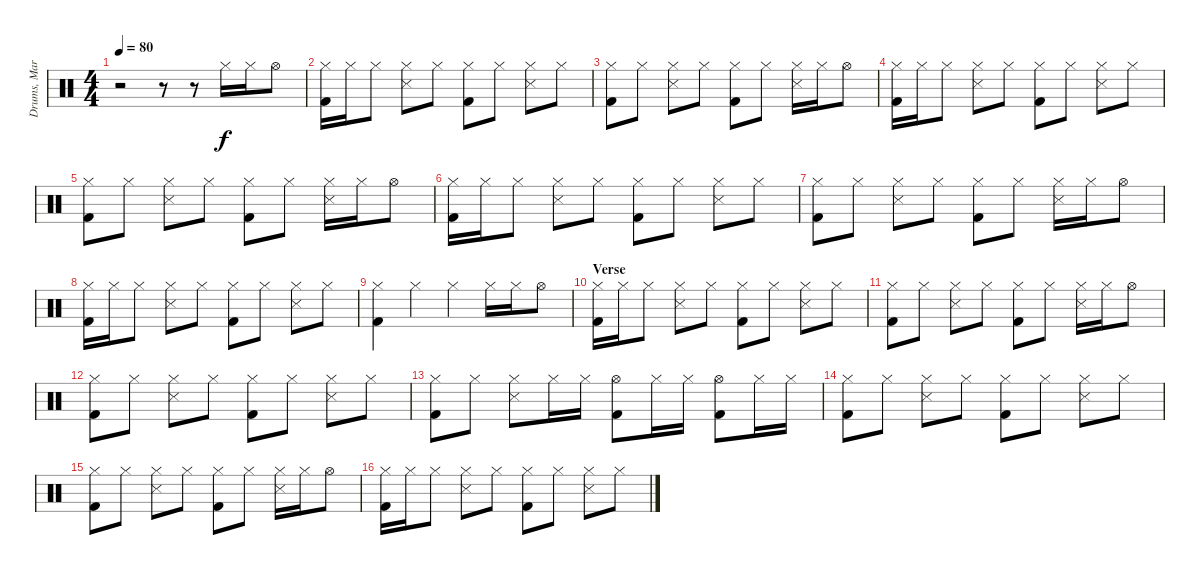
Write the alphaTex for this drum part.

\track ("Drums, Martina" "Drums, Mar") {instrument percussion}
\staff {score}
\articulation defaults
\ts (4 4)
\tempo 80
\clef neutral
\ks c
r.2{dy f} r.8 r.8 "Hi-Hat (closed)".16 "Hi-Hat (closed)".16 "Hi-Hat (open)".8 |
("Hi-Hat (closed)" "Kick (hit) 2").16 "Hi-Hat (closed)".16 "Hi-Hat (closed)".8 ("Hi-Hat (closed)" "Snare (side stick) 3").8 "Hi-Hat (closed)".8 ("Hi-Hat (closed)" "Kick (hit) 2").8 "Hi-Hat (closed)".8 ("Hi-Hat (closed)" "Snare (side stick) 3").8 "Hi-Hat (closed)".8 |
("Hi-Hat (closed)" "Kick (hit) 2").8 "Hi-Hat (closed)".8 ("Hi-Hat (closed)" "Snare (side stick) 3").8 "Hi-Hat (closed)".8 ("Hi-Hat (closed)" "Kick (hit) 2").8 "Hi-Hat (closed)".8 ("Hi-Hat (closed)" "Snare (side stick) 3").16 "Hi-Hat (closed)".16 "Hi-Hat (open)".8 |
("Hi-Hat (closed)" "Kick (hit) 2").16 "Hi-Hat (closed)".16 "Hi-Hat (closed)".8 ("Hi-Hat (closed)" "Snare (side stick) 3").8 "Hi-Hat (closed)".8 ("Hi-Hat (closed)" "Kick (hit) 2").8 "Hi-Hat (closed)".8 ("Hi-Hat (closed)" "Snare (side stick) 3").8 "Hi-Hat (closed)".8 |
("Hi-Hat (closed)" "Kick (hit) 2").8 "Hi-Hat (closed)".8 ("Hi-Hat (closed)" "Snare (side stick) 3").8 "Hi-Hat (closed)".8 ("Hi-Hat (closed)" "Kick (hit) 2").8 "Hi-Hat (closed)".8 ("Hi-Hat (closed)" "Snare (side stick) 3").16 "Hi-Hat (closed)".16 "Hi-Hat (open)".8 |
("Hi-Hat (closed)" "Kick (hit) 2").16 "Hi-Hat (closed)".16 "Hi-Hat (closed)".8 ("Hi-Hat (closed)" "Snare (side stick) 3").8 "Hi-Hat (closed)".8 ("Hi-Hat (closed)" "Kick (hit) 2").8 "Hi-Hat (closed)".8 ("Hi-Hat (closed)" "Snare (side stick) 3").8 "Hi-Hat (closed)".8 |
("Hi-Hat (closed)" "Kick (hit) 2").8 "Hi-Hat (closed)".8 ("Hi-Hat (closed)" "Snare (side stick) 3").8 "Hi-Hat (closed)".8 ("Hi-Hat (closed)" "Kick (hit) 2").8 "Hi-Hat (closed)".8 ("Hi-Hat (closed)" "Snare (side stick) 3").16 "Hi-Hat (closed)".16 "Hi-Hat (open)".8 |
("Hi-Hat (closed)" "Kick (hit) 2").16 "Hi-Hat (closed)".16 "Hi-Hat (closed)".8 ("Hi-Hat (closed)" "Snare (side stick) 3").8 "Hi-Hat (closed)".8 ("Hi-Hat (closed)" "Kick (hit) 2").8 "Hi-Hat (closed)".8 ("Hi-Hat (closed)" "Snare (side stick) 3").8 "Hi-Hat (closed)".8 |
("Hi-Hat (closed)" "Kick (hit) 2").4 "Hi-Hat (closed)".4 "Hi-Hat (closed)".4 "Hi-Hat (closed)".16 "Hi-Hat (closed)".16 "Hi-Hat (open)".8 |
\section ("" "Verse")
("Hi-Hat (closed)" "Kick (hit) 2").16 "Hi-Hat (closed)".16 "Hi-Hat (closed)".8 ("Hi-Hat (closed)" "Snare (side stick) 3").8 "Hi-Hat (closed)".8 ("Hi-Hat (closed)" "Kick (hit) 2").8 "Hi-Hat (closed)".8 ("Hi-Hat (closed)" "Snare (side stick) 3").8 "Hi-Hat (closed)".8 |
("Hi-Hat (closed)" "Kick (hit) 2").8 "Hi-Hat (closed)".8 ("Hi-Hat (closed)" "Snare (side stick) 3").8 "Hi-Hat (closed)".8 ("Hi-Hat (closed)" "Kick (hit) 2").8 "Hi-Hat (closed)".8 ("Hi-Hat (closed)" "Snare (side stick) 3").16 "Hi-Hat (closed)".16 "Hi-Hat (open)".8 |
("Hi-Hat (closed)" "Kick (hit) 2").8 "Hi-Hat (closed)".8 ("Hi-Hat (closed)" "Snare (side stick) 3").8 "Hi-Hat (closed)".8 ("Hi-Hat (closed)" "Kick (hit) 2").8 "Hi-Hat (closed)".8 ("Hi-Hat (closed)" "Snare (side stick) 3").8 "Hi-Hat (closed)".8 |
("Hi-Hat (closed)" "Kick (hit) 2").8 "Hi-Hat (closed)".8 ("Hi-Hat (closed)" "Snare (side stick) 3").8 "Hi-Hat (closed)".16 "Hi-Hat (closed)".16 ("Hi-Hat (open)" "Kick (hit) 2").8 "Hi-Hat (closed)".16 "Hi-Hat (closed)".16 ("Hi-Hat (open)" "Kick (hit) 2").8 "Hi-Hat (closed)".16 "Hi-Hat (closed)".16 |
("Hi-Hat (closed)" "Kick (hit) 2").8 "Hi-Hat (closed)".8 ("Hi-Hat (closed)" "Snare (side stick) 3").8 "Hi-Hat (closed)".8 ("Hi-Hat (closed)" "Kick (hit) 2").8 "Hi-Hat (closed)".8 ("Hi-Hat (closed)" "Snare (side stick) 3").8 "Hi-Hat (closed)".8 |
("Hi-Hat (closed)" "Kick (hit) 2").8 "Hi-Hat (closed)".8 ("Hi-Hat (closed)" "Snare (side stick) 3").8 "Hi-Hat (closed)".8 ("Hi-Hat (closed)" "Kick (hit) 2").8 "Hi-Hat (closed)".8 ("Hi-Hat (closed)" "Snare (side stick) 3").16 "Hi-Hat (closed)".16 "Hi-Hat (open)".8 |
("Hi-Hat (closed)" "Kick (hit) 2").16 "Hi-Hat (closed)".16 "Hi-Hat (closed)".8 ("Hi-Hat (closed)" "Snare (side stick) 3").8 "Hi-Hat (closed)".8 ("Hi-Hat (closed)" "Kick (hit) 2").8 "Hi-Hat (closed)".8 ("Hi-Hat (closed)" "Snare (side stick) 3").8 "Hi-Hat (closed)".8
